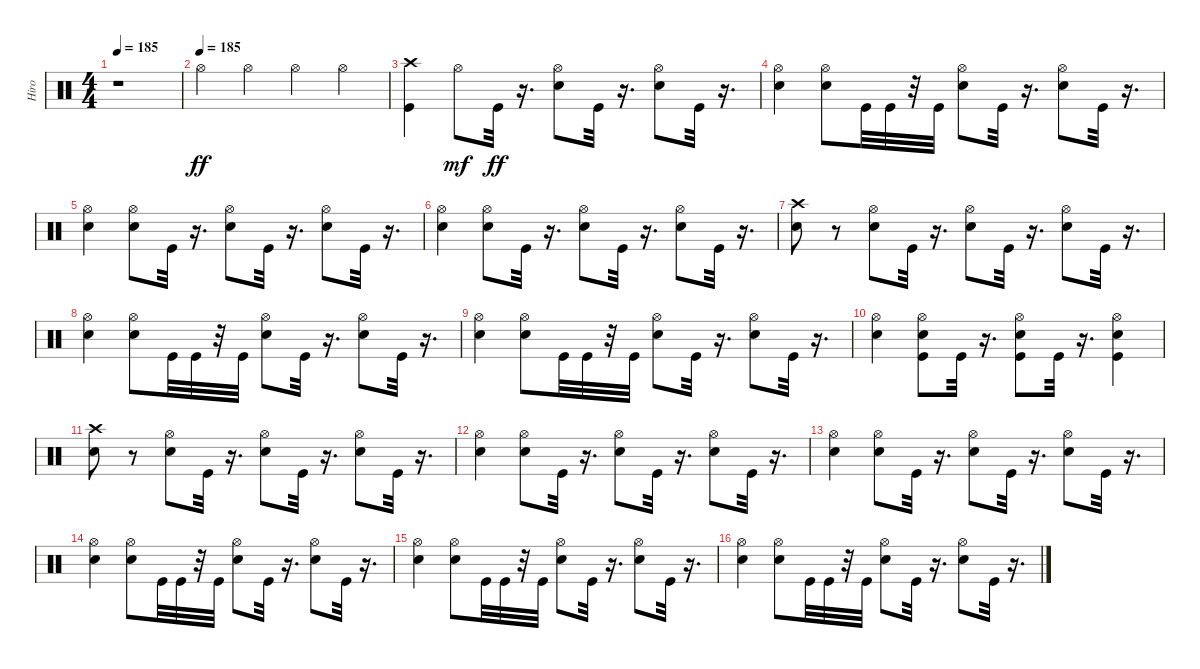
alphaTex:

\track ("Hiro" "Hiro") {instrument percussion}
\staff {score}
\articulation defaults
\ts (4 4)
\tempo 185
\clef neutral
\ks c
r.1{dy ff} |
\tempo (185)
"Hi-Hat (open)".4 "Hi-Hat (open)".4 "Hi-Hat (open)".4 "Hi-Hat (open)".4 |
("Crash high (hit)" "Kick (hit)").4 "Hi-Hat (open)".8{dy mf} "Kick (hit)".32{dy ff} r.16{d} ("Electric Snare (hit)" "Hi-Hat (open)").8 "Kick (hit)".32 r.16{d} ("Electric Snare (hit)" "Hi-Hat (open)").8 "Kick (hit)".32 r.16{d} |
("Electric Snare (hit)" "Hi-Hat (open)").4 ("Electric Snare (hit)" "Hi-Hat (open)").8 "Kick (hit)".32 "Kick (hit)".32 r.32 "Kick (hit)".32 ("Electric Snare (hit)" "Hi-Hat (open)").8 "Kick (hit)".32 r.16{d} ("Electric Snare (hit)" "Hi-Hat (open)").8 "Kick (hit)".32 r.16{d} |
("Electric Snare (hit)" "Hi-Hat (open)").4 ("Electric Snare (hit)" "Hi-Hat (open)").8 "Kick (hit)".32 r.16{d} ("Electric Snare (hit)" "Hi-Hat (open)").8 "Kick (hit)".32 r.16{d} ("Electric Snare (hit)" "Hi-Hat (open)").8 "Kick (hit)".32 r.16{d} |
("Electric Snare (hit)" "Hi-Hat (open)").4 ("Electric Snare (hit)" "Hi-Hat (open)").8 "Kick (hit)".32 r.16{d} ("Electric Snare (hit)" "Hi-Hat (open)").8 "Kick (hit)".32 r.16{d} ("Electric Snare (hit)" "Hi-Hat (open)").8 "Kick (hit)".32 r.16{d} |
("Crash high (hit)" "Electric Snare (hit)").8 r.8 ("Electric Snare (hit)" "Hi-Hat (open)").8 "Kick (hit)".32 r.16{d} ("Electric Snare (hit)" "Hi-Hat (open)").8 "Kick (hit)".32 r.16{d} ("Electric Snare (hit)" "Hi-Hat (open)").8 "Kick (hit)".32 r.16{d} |
("Electric Snare (hit)" "Hi-Hat (open)").4 ("Electric Snare (hit)" "Hi-Hat (open)").8 "Kick (hit)".32 "Kick (hit)".32 r.32 "Kick (hit)".32 ("Electric Snare (hit)" "Hi-Hat (open)").8 "Kick (hit)".32 r.16{d} ("Electric Snare (hit)" "Hi-Hat (open)").8 "Kick (hit)".32 r.16{d} |
("Electric Snare (hit)" "Hi-Hat (open)").4 ("Electric Snare (hit)" "Hi-Hat (open)").8 "Kick (hit)".32 "Kick (hit)".32 r.32 "Kick (hit)".32 ("Electric Snare (hit)" "Hi-Hat (open)").8 "Kick (hit)".32 r.16{d} ("Electric Snare (hit)" "Hi-Hat (open)").8 "Kick (hit)".32 r.16{d} |
("Electric Snare (hit)" "Hi-Hat (open)").4 ("Electric Snare (hit)" "Kick (hit)" "Hi-Hat (open)").8 "Kick (hit)".32 r.16{d} ("Electric Snare (hit)" "Kick (hit)" "Hi-Hat (open)").8 "Kick (hit)".32 r.16{d} ("Electric Snare (hit)" "Kick (hit)" "Hi-Hat (open)").4 |
("Crash high (hit)" "Electric Snare (hit)").8 r.8 ("Electric Snare (hit)" "Hi-Hat (open)").8 "Kick (hit)".32 r.16{d} ("Electric Snare (hit)" "Hi-Hat (open)").8 "Kick (hit)".32 r.16{d} ("Electric Snare (hit)" "Hi-Hat (open)").8 "Kick (hit)".32 r.16{d} |
("Electric Snare (hit)" "Hi-Hat (open)").4 ("Electric Snare (hit)" "Hi-Hat (open)").8 "Kick (hit)".32 r.16{d} ("Electric Snare (hit)" "Hi-Hat (open)").8 "Kick (hit)".32 r.16{d} ("Electric Snare (hit)" "Hi-Hat (open)").8 "Kick (hit)".32 r.16{d} |
("Electric Snare (hit)" "Hi-Hat (open)").4 ("Electric Snare (hit)" "Hi-Hat (open)").8 "Kick (hit)".32 r.16{d} ("Electric Snare (hit)" "Hi-Hat (open)").8 "Kick (hit)".32 r.16{d} ("Electric Snare (hit)" "Hi-Hat (open)").8 "Kick (hit)".32 r.16{d} |
("Electric Snare (hit)" "Hi-Hat (open)").4 ("Electric Snare (hit)" "Hi-Hat (open)").8 "Kick (hit)".32 "Kick (hit)".32 r.32 "Kick (hit)".32 ("Electric Snare (hit)" "Hi-Hat (open)").8 "Kick (hit)".32 r.16{d} ("Electric Snare (hit)" "Hi-Hat (open)").8 "Kick (hit)".32 r.16{d} |
("Electric Snare (hit)" "Hi-Hat (open)").4 ("Electric Snare (hit)" "Hi-Hat (open)").8 "Kick (hit)".32 "Kick (hit)".32 r.32 "Kick (hit)".32 ("Electric Snare (hit)" "Hi-Hat (open)").8 "Kick (hit)".32 r.16{d} ("Electric Snare (hit)" "Hi-Hat (open)").8 "Kick (hit)".32 r.16{d} |
("Electric Snare (hit)" "Hi-Hat (open)").4 ("Electric Snare (hit)" "Hi-Hat (open)").8 "Kick (hit)".32 "Kick (hit)".32 r.32 "Kick (hit)".32 ("Electric Snare (hit)" "Hi-Hat (open)").8 "Kick (hit)".32 r.16{d} ("Electric Snare (hit)" "Hi-Hat (open)").8 "Kick (hit)".32 r.16{d}
